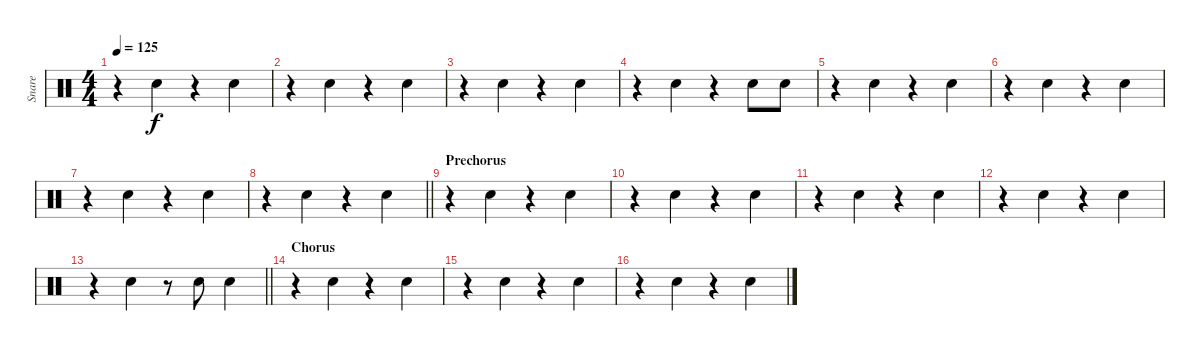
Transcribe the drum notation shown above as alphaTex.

\track ("Snare" "Snare") {instrument percussion}
\staff {score}
\articulation defaults
\ts (4 4)
\tempo 125
\clef neutral
\ks c
r.4{dy f} "Electric Snare (hit)".4 r.4 "Electric Snare (hit)".4 |
r.4 "Electric Snare (hit)".4 r.4 "Electric Snare (hit)".4 |
r.4 "Electric Snare (hit)".4 r.4 "Electric Snare (hit)".4 |
r.4 "Electric Snare (hit)".4 r.4 "Electric Snare (hit)".8 "Electric Snare (hit)".8 |
r.4 "Electric Snare (hit)".4 r.4 "Electric Snare (hit)".4 |
r.4 "Electric Snare (hit)".4 r.4 "Electric Snare (hit)".4 |
r.4 "Electric Snare (hit)".4 r.4 "Electric Snare (hit)".4 |
\barLineRight lightlight
r.4 "Electric Snare (hit)".4 r.4 "Electric Snare (hit)".4 |
\section ("" "Prechorus")
r.4 "Electric Snare (hit)".4 r.4 "Electric Snare (hit)".4 |
r.4 "Electric Snare (hit)".4 r.4 "Electric Snare (hit)".4 |
r.4 "Electric Snare (hit)".4 r.4 "Electric Snare (hit)".4 |
r.4 "Electric Snare (hit)".4 r.4 "Electric Snare (hit)".4 |
\barLineRight lightlight
r.4 "Electric Snare (hit)".4 r.8 "Electric Snare (hit)".8 "Electric Snare (hit)".4 |
\section ("" "Chorus")
r.4 "Electric Snare (hit)".4 r.4 "Electric Snare (hit)".4 |
r.4 "Electric Snare (hit)".4 r.4 "Electric Snare (hit)".4 |
r.4 "Electric Snare (hit)".4 r.4 "Electric Snare (hit)".4
